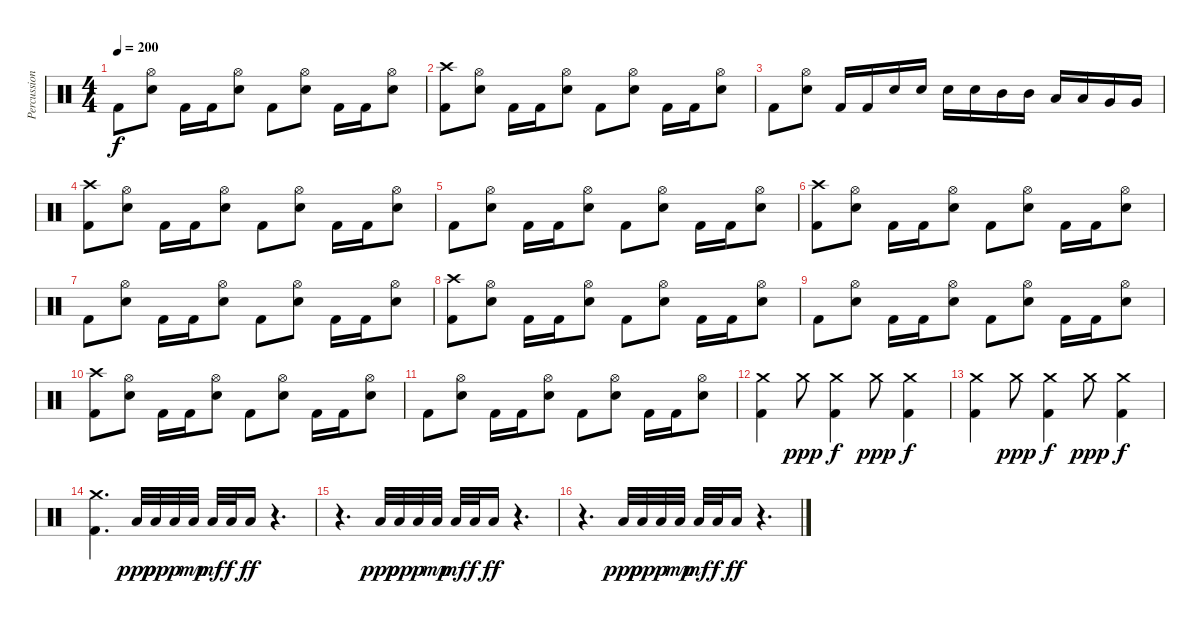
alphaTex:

\track ("Percussion" "Percussion") {instrument percussion}
\staff {score}
\articulation defaults
\ts (4 4)
\tempo 200
\clef neutral
\ks c "Kick (hit) 2".8{dy f}
("Hi-Hat (open)" "Snare (hit) 2").8 "Kick (hit) 2".16 "Kick (hit) 2".16 ("Hi-Hat (open)" "Snare (hit) 2").8 "Kick (hit) 2".8 ("Hi-Hat (open)" "Snare (hit) 2").8 "Kick (hit) 2".16 "Kick (hit) 2".16 ("Hi-Hat (open)" "Snare (hit) 2").8 |
("Crash high (hit)" "Kick (hit) 2").8 ("Hi-Hat (open)" "Snare (hit) 2").8 "Kick (hit) 2".16 "Kick (hit) 2".16 ("Hi-Hat (open)" "Snare (hit) 2").8 "Kick (hit) 2".8 ("Hi-Hat (open)" "Snare (hit) 2").8 "Kick (hit) 2".16 "Kick (hit) 2".16 ("Hi-Hat (open)" "Snare (hit) 2").8 |
"Kick (hit) 2".8 ("Hi-Hat (open)" "Snare (hit) 2").8 "Kick (hit) 2".16 "Kick (hit) 2".16 "Snare (hit) 2".16 "Snare (hit) 2".16 "Snare (hit) 2".16 "Snare (hit) 2".16 "Mid Tom (hit)".16 "Mid Tom (hit)".16 "Low Tom (hit)".16 "Low Tom (hit)".16 "Very Low Tom (hit)".16 "Very Low Tom (hit)".16 |
("Crash high (hit)" "Kick (hit) 2").8 ("Hi-Hat (open)" "Snare (hit) 2").8 "Kick (hit) 2".16 "Kick (hit) 2".16 ("Hi-Hat (open)" "Snare (hit) 2").8 "Kick (hit) 2".8 ("Hi-Hat (open)" "Snare (hit) 2").8 "Kick (hit) 2".16 "Kick (hit) 2".16 ("Hi-Hat (open)" "Snare (hit) 2").8 |
"Kick (hit) 2".8 ("Hi-Hat (open)" "Snare (hit) 2").8 "Kick (hit) 2".16 "Kick (hit) 2".16 ("Hi-Hat (open)" "Snare (hit) 2").8 "Kick (hit) 2".8 ("Hi-Hat (open)" "Snare (hit) 2").8 "Kick (hit) 2".16 "Kick (hit) 2".16 ("Hi-Hat (open)" "Snare (hit) 2").8 |
("Crash high (hit)" "Kick (hit) 2").8 ("Hi-Hat (open)" "Snare (hit) 2").8 "Kick (hit) 2".16 "Kick (hit) 2".16 ("Hi-Hat (open)" "Snare (hit) 2").8 "Kick (hit) 2".8 ("Hi-Hat (open)" "Snare (hit) 2").8 "Kick (hit) 2".16 "Kick (hit) 2".16 ("Hi-Hat (open)" "Snare (hit) 2").8 |
"Kick (hit) 2".8 ("Hi-Hat (open)" "Snare (hit) 2").8 "Kick (hit) 2".16 "Kick (hit) 2".16 ("Hi-Hat (open)" "Snare (hit) 2").8 "Kick (hit) 2".8 ("Hi-Hat (open)" "Snare (hit) 2").8 "Kick (hit) 2".16 "Kick (hit) 2".16 ("Hi-Hat (open)" "Snare (hit) 2").8 |
("Crash high (hit)" "Kick (hit) 2").8 ("Hi-Hat (open)" "Snare (hit) 2").8 "Kick (hit) 2".16 "Kick (hit) 2".16 ("Hi-Hat (open)" "Snare (hit) 2").8 "Kick (hit) 2".8 ("Hi-Hat (open)" "Snare (hit) 2").8 "Kick (hit) 2".16 "Kick (hit) 2".16 ("Hi-Hat (open)" "Snare (hit) 2").8 |
"Kick (hit) 2".8 ("Hi-Hat (open)" "Snare (hit) 2").8 "Kick (hit) 2".16 "Kick (hit) 2".16 ("Hi-Hat (open)" "Snare (hit) 2").8 "Kick (hit) 2".8 ("Hi-Hat (open)" "Snare (hit) 2").8 "Kick (hit) 2".16 "Kick (hit) 2".16 ("Hi-Hat (open)" "Snare (hit) 2").8 |
("Crash high (hit)" "Kick (hit) 2").8 ("Hi-Hat (open)" "Snare (hit) 2").8 "Kick (hit) 2".16 "Kick (hit) 2".16 ("Hi-Hat (open)" "Snare (hit) 2").8 "Kick (hit) 2".8 ("Hi-Hat (open)" "Snare (hit) 2").8 "Kick (hit) 2".16 "Kick (hit) 2".16 ("Hi-Hat (open)" "Snare (hit) 2").8 |
"Kick (hit) 2".8 ("Hi-Hat (open)" "Snare (hit) 2").8 "Kick (hit) 2".16 "Kick (hit) 2".16 ("Hi-Hat (open)" "Snare (hit) 2").8 "Kick (hit) 2".8 ("Hi-Hat (open)" "Snare (hit) 2").8 "Kick (hit) 2".16 "Kick (hit) 2".16 ("Hi-Hat (open)" "Snare (hit) 2").8 |
("Crash medium (hit)" "Kick (hit) 2").4 "Crash medium (hit)".8{dy ppp} ("Crash medium (hit)" "Kick (hit) 2").4{dy f} "Crash medium (hit)".8{dy ppp} ("Crash medium (hit)" "Kick (hit) 2").4{dy f} |
("Crash medium (hit)" "Kick (hit) 2").4 "Crash medium (hit)".8{dy ppp} ("Crash medium (hit)" "Kick (hit) 2").4{dy f} "Crash medium (hit)".8{dy ppp} ("Crash medium (hit)" "Kick (hit) 2").4{dy f} |
("Crash medium (hit)" "Kick (hit) 2").4{d} "Low Floor Tom (hit)".32{dy ppp} "Low Floor Tom (hit)".32{dy pp} "Low Floor Tom (hit)".32{dy p} "Low Floor Tom (hit)".32{dy mp} "Low Floor Tom (hit)".32{dy mf} "Low Floor Tom (hit)".32{dy f} "Low Floor Tom (hit)".16{dy ff} r.4{d} |
r.4{d} "Low Floor Tom (hit)".32{dy ppp} "Low Floor Tom (hit)".32{dy pp} "Low Floor Tom (hit)".32{dy p} "Low Floor Tom (hit)".32{dy mp} "Low Floor Tom (hit)".32{dy mf} "Low Floor Tom (hit)".32{dy f} "Low Floor Tom (hit)".16{dy ff} r.4{d} |
r.4{d} "Low Floor Tom (hit)".32{dy ppp} "Low Floor Tom (hit)".32{dy pp} "Low Floor Tom (hit)".32{dy p} "Low Floor Tom (hit)".32{dy mp} "Low Floor Tom (hit)".32{dy mf} "Low Floor Tom (hit)".32{dy f} "Low Floor Tom (hit)".16{dy ff} r.4{d}
